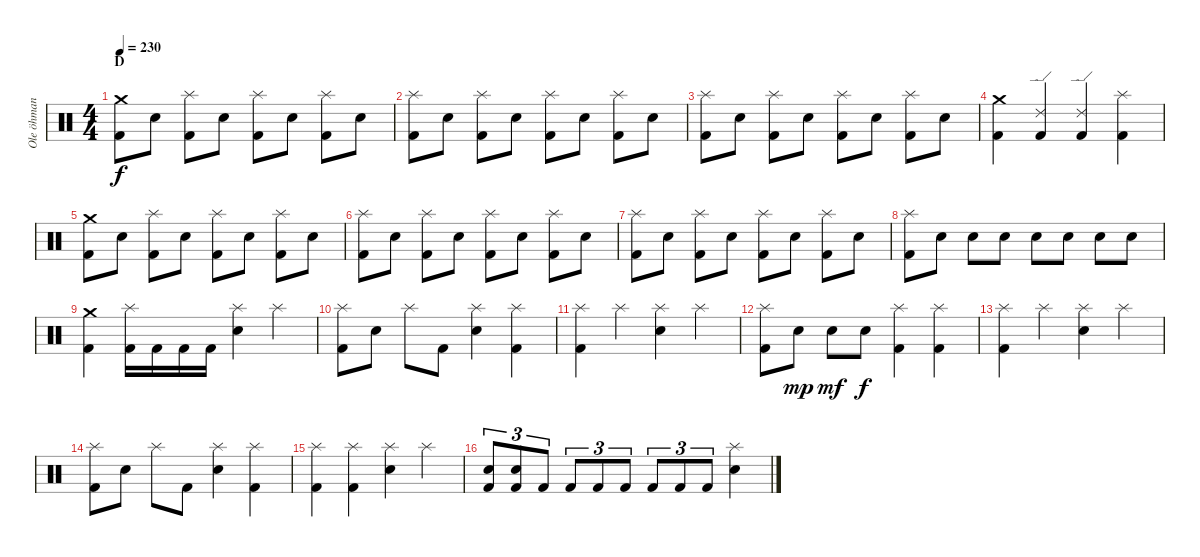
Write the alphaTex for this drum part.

\track ("Ole öhman" "Ole öhman") {instrument percussion}
\staff {score}
\articulation defaults
\ts (4 4)
\section ("" "D")
\tempo 230
\clef neutral
\ks c
("Crash medium (hit)" "Kick (hit) 2").8{dy f} "Electric Snare (hit)".8 ("Splash (hit)" "Kick (hit) 2").8 "Electric Snare (hit)".8 ("Splash (hit)" "Kick (hit) 2").8 "Electric Snare (hit)".8 ("Splash (hit)" "Kick (hit) 2").8 "Electric Snare (hit)".8 |
("Splash (hit)" "Kick (hit) 2").8 "Electric Snare (hit)".8 ("Splash (hit)" "Kick (hit) 2").8 "Electric Snare (hit)".8 ("Splash (hit)" "Kick (hit) 2").8 "Electric Snare (hit)".8 ("Splash (hit)" "Kick (hit) 2").8 "Electric Snare (hit)".8 |
("Splash (hit)" "Kick (hit) 2").8 "Electric Snare (hit)".8 ("Splash (hit)" "Kick (hit) 2").8 "Electric Snare (hit)".8 ("Splash (hit)" "Kick (hit) 2").8 "Electric Snare (hit)".8 ("Splash (hit)" "Kick (hit) 2").8 "Electric Snare (hit)".8 |
("Crash medium (hit)" "Kick (hit) 2").4 ("Ride (edge) 2" "Kick (hit) 2").4 ("Ride (edge) 2" "Kick (hit) 2").4 ("Splash (hit)" "Kick (hit) 2").4 |
("Crash medium (hit)" "Kick (hit) 2").8 "Electric Snare (hit)".8 ("Splash (hit)" "Kick (hit) 2").8 "Electric Snare (hit)".8 ("Splash (hit)" "Kick (hit) 2").8 "Electric Snare (hit)".8 ("Splash (hit)" "Kick (hit) 2").8 "Electric Snare (hit)".8 |
("Splash (hit)" "Kick (hit) 2").8 "Electric Snare (hit)".8 ("Splash (hit)" "Kick (hit) 2").8 "Electric Snare (hit)".8 ("Splash (hit)" "Kick (hit) 2").8 "Electric Snare (hit)".8 ("Splash (hit)" "Kick (hit) 2").8 "Electric Snare (hit)".8 |
("Splash (hit)" "Kick (hit) 2").8 "Electric Snare (hit)".8 ("Splash (hit)" "Kick (hit) 2").8 "Electric Snare (hit)".8 ("Splash (hit)" "Kick (hit) 2").8 "Electric Snare (hit)".8 ("Splash (hit)" "Kick (hit) 2").8 "Electric Snare (hit)".8 |
("Splash (hit)" "Kick (hit) 2").8 "Electric Snare (hit)".8 "Electric Snare (hit)".8 "Electric Snare (hit)".8 "Electric Snare (hit)".8 "Electric Snare (hit)".8 "Electric Snare (hit)".8 "Electric Snare (hit)".8 |
("Crash medium (hit)" "Kick (hit) 2").4 ("Splash (hit)" "Kick (hit) 2").16 "Kick (hit) 2".16 "Kick (hit) 2".16 "Kick (hit) 2".16 ("Splash (hit)" "Electric Snare (hit)").4 "Splash (hit)".4 |
("Splash (hit)" "Kick (hit) 2").8 "Electric Snare (hit)".8 "Splash (hit)".8 "Kick (hit) 2".8 ("Splash (hit)" "Electric Snare (hit)").4 ("Splash (hit)" "Kick (hit) 2").4 |
("Splash (hit)" "Kick (hit) 2").4 "Splash (hit)".4 ("Splash (hit)" "Electric Snare (hit)").4 "Splash (hit)".4 |
("Splash (hit)" "Kick (hit) 2").8 "Electric Snare (hit)".8{dy mp} "Electric Snare (hit)".8{dy mf} "Electric Snare (hit)".8{dy f} ("Splash (hit)" "Kick (hit) 2").4 ("Splash (hit)" "Kick (hit) 2").4 |
("Splash (hit)" "Kick (hit) 2").4 "Splash (hit)".4 ("Splash (hit)" "Electric Snare (hit)").4 "Splash (hit)".4 |
("Splash (hit)" "Kick (hit) 2").8 "Electric Snare (hit)".8 "Splash (hit)".8 "Kick (hit) 2".8 ("Splash (hit)" "Electric Snare (hit)").4 ("Splash (hit)" "Kick (hit) 2").4 |
("Splash (hit)" "Kick (hit) 2").4 ("Splash (hit)" "Kick (hit) 2").4 ("Splash (hit)" "Electric Snare (hit)").4 "Splash (hit)".4 |
("Electric Snare (hit)" "Kick (hit) 2").8{tu (3 2)} ("Electric Snare (hit)" "Kick (hit) 2").8{tu (3 2)} "Kick (hit) 2".8{tu (3 2)} "Kick (hit) 2".8{tu (3 2)} "Kick (hit) 2".8{tu (3 2)} "Kick (hit) 2".8{tu (3 2)} "Kick (hit) 2".8{tu (3 2)} "Kick (hit) 2".8{tu (3 2)} "Kick (hit) 2".8{tu (3 2)} ("Splash (hit)" "Electric Snare (hit)").4
